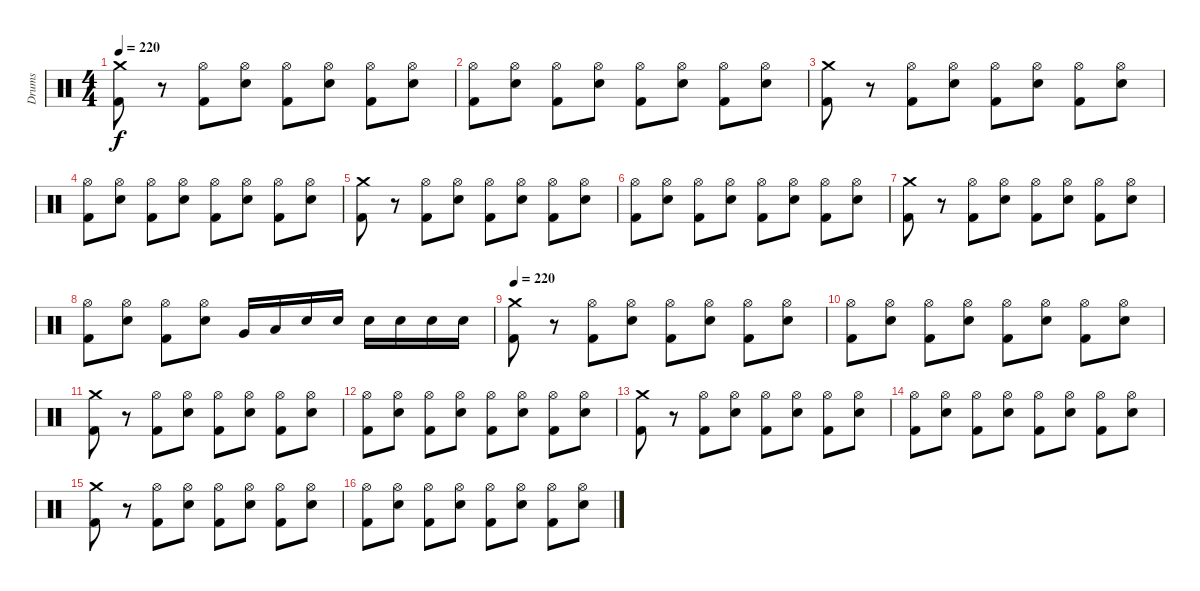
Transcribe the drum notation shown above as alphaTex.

\track ("Drums" "Drums") {instrument percussion}
\staff {score}
\articulation defaults
\ts (4 4)
\tempo 220
\clef neutral
\ks c
("Crash medium (hit)" "Kick (hit) 2").8{dy f} r.8 ("Hi-Hat (open)" "Kick (hit) 2").8 ("Hi-Hat (open)" "Snare (hit) 2").8 ("Hi-Hat (open)" "Kick (hit) 2").8 ("Hi-Hat (open)" "Snare (hit) 2").8 ("Hi-Hat (open)" "Kick (hit) 2").8 ("Hi-Hat (open)" "Snare (hit) 2").8 |
("Hi-Hat (open)" "Kick (hit) 2").8 ("Hi-Hat (open)" "Snare (hit) 2").8 ("Hi-Hat (open)" "Kick (hit) 2").8 ("Hi-Hat (open)" "Snare (hit) 2").8 ("Hi-Hat (open)" "Kick (hit) 2").8 ("Hi-Hat (open)" "Snare (hit) 2").8 ("Hi-Hat (open)" "Kick (hit) 2").8 ("Hi-Hat (open)" "Snare (hit) 2").8 |
("Crash medium (hit)" "Kick (hit) 2").8 r.8 ("Hi-Hat (open)" "Kick (hit) 2").8 ("Hi-Hat (open)" "Snare (hit) 2").8 ("Hi-Hat (open)" "Kick (hit) 2").8 ("Hi-Hat (open)" "Snare (hit) 2").8 ("Hi-Hat (open)" "Kick (hit) 2").8 ("Hi-Hat (open)" "Snare (hit) 2").8 |
("Hi-Hat (open)" "Kick (hit) 2").8 ("Hi-Hat (open)" "Snare (hit) 2").8 ("Hi-Hat (open)" "Kick (hit) 2").8 ("Hi-Hat (open)" "Snare (hit) 2").8 ("Hi-Hat (open)" "Kick (hit) 2").8 ("Hi-Hat (open)" "Snare (hit) 2").8 ("Hi-Hat (open)" "Kick (hit) 2").8 ("Hi-Hat (open)" "Snare (hit) 2").8 |
("Crash medium (hit)" "Kick (hit) 2").8 r.8 ("Hi-Hat (open)" "Kick (hit) 2").8 ("Hi-Hat (open)" "Snare (hit) 2").8 ("Hi-Hat (open)" "Kick (hit) 2").8 ("Hi-Hat (open)" "Snare (hit) 2").8 ("Hi-Hat (open)" "Kick (hit) 2").8 ("Hi-Hat (open)" "Snare (hit) 2").8 |
("Hi-Hat (open)" "Kick (hit) 2").8 ("Hi-Hat (open)" "Snare (hit) 2").8 ("Hi-Hat (open)" "Kick (hit) 2").8 ("Hi-Hat (open)" "Snare (hit) 2").8 ("Hi-Hat (open)" "Kick (hit) 2").8 ("Hi-Hat (open)" "Snare (hit) 2").8 ("Hi-Hat (open)" "Kick (hit) 2").8 ("Hi-Hat (open)" "Snare (hit) 2").8 |
("Crash medium (hit)" "Kick (hit) 2").8 r.8 ("Hi-Hat (open)" "Kick (hit) 2").8 ("Hi-Hat (open)" "Snare (hit) 2").8 ("Hi-Hat (open)" "Kick (hit) 2").8 ("Hi-Hat (open)" "Snare (hit) 2").8 ("Hi-Hat (open)" "Kick (hit) 2").8 ("Hi-Hat (open)" "Snare (hit) 2").8 |
("Hi-Hat (open)" "Kick (hit) 2").8 ("Hi-Hat (open)" "Snare (hit) 2").8 ("Hi-Hat (open)" "Kick (hit) 2").8 ("Hi-Hat (open)" "Snare (hit) 2").8 "Very Low Tom (hit)".16 "Low Tom (hit)".16 "Snare (hit) 2".16 "Snare (hit) 2".16 "Snare (hit) 2".16 "Snare (hit) 2".16 "Snare (hit) 2".16 "Snare (hit) 2".16 |
\tempo 220
("Crash medium (hit)" "Kick (hit) 2").8 r.8 ("Hi-Hat (open)" "Kick (hit) 2").8 ("Hi-Hat (open)" "Snare (hit) 2").8 ("Hi-Hat (open)" "Kick (hit) 2").8 ("Hi-Hat (open)" "Snare (hit) 2").8 ("Hi-Hat (open)" "Kick (hit) 2").8 ("Hi-Hat (open)" "Snare (hit) 2").8 |
("Hi-Hat (open)" "Kick (hit) 2").8 ("Hi-Hat (open)" "Snare (hit) 2").8 ("Hi-Hat (open)" "Kick (hit) 2").8 ("Hi-Hat (open)" "Snare (hit) 2").8 ("Hi-Hat (open)" "Kick (hit) 2").8 ("Hi-Hat (open)" "Snare (hit) 2").8 ("Hi-Hat (open)" "Kick (hit) 2").8 ("Hi-Hat (open)" "Snare (hit) 2").8 |
("Crash medium (hit)" "Kick (hit) 2").8 r.8 ("Hi-Hat (open)" "Kick (hit) 2").8 ("Hi-Hat (open)" "Snare (hit) 2").8 ("Hi-Hat (open)" "Kick (hit) 2").8 ("Hi-Hat (open)" "Snare (hit) 2").8 ("Hi-Hat (open)" "Kick (hit) 2").8 ("Hi-Hat (open)" "Snare (hit) 2").8 |
("Hi-Hat (open)" "Kick (hit) 2").8 ("Hi-Hat (open)" "Snare (hit) 2").8 ("Hi-Hat (open)" "Kick (hit) 2").8 ("Hi-Hat (open)" "Snare (hit) 2").8 ("Hi-Hat (open)" "Kick (hit) 2").8 ("Hi-Hat (open)" "Snare (hit) 2").8 ("Hi-Hat (open)" "Kick (hit) 2").8 ("Hi-Hat (open)" "Snare (hit) 2").8 |
("Crash medium (hit)" "Kick (hit) 2").8 r.8 ("Hi-Hat (open)" "Kick (hit) 2").8 ("Hi-Hat (open)" "Snare (hit) 2").8 ("Hi-Hat (open)" "Kick (hit) 2").8 ("Hi-Hat (open)" "Snare (hit) 2").8 ("Hi-Hat (open)" "Kick (hit) 2").8 ("Hi-Hat (open)" "Snare (hit) 2").8 |
("Hi-Hat (open)" "Kick (hit) 2").8 ("Hi-Hat (open)" "Snare (hit) 2").8 ("Hi-Hat (open)" "Kick (hit) 2").8 ("Hi-Hat (open)" "Snare (hit) 2").8 ("Hi-Hat (open)" "Kick (hit) 2").8 ("Hi-Hat (open)" "Snare (hit) 2").8 ("Hi-Hat (open)" "Kick (hit) 2").8 ("Hi-Hat (open)" "Snare (hit) 2").8 |
("Crash medium (hit)" "Kick (hit) 2").8 r.8 ("Hi-Hat (open)" "Kick (hit) 2").8 ("Hi-Hat (open)" "Snare (hit) 2").8 ("Hi-Hat (open)" "Kick (hit) 2").8 ("Hi-Hat (open)" "Snare (hit) 2").8 ("Hi-Hat (open)" "Kick (hit) 2").8 ("Hi-Hat (open)" "Snare (hit) 2").8 |
("Hi-Hat (open)" "Kick (hit) 2").8 ("Hi-Hat (open)" "Snare (hit) 2").8 ("Hi-Hat (open)" "Kick (hit) 2").8 ("Hi-Hat (open)" "Snare (hit) 2").8 ("Hi-Hat (open)" "Kick (hit) 2").8 ("Hi-Hat (open)" "Snare (hit) 2").8 ("Hi-Hat (open)" "Kick (hit) 2").8 ("Hi-Hat (open)" "Snare (hit) 2").8
